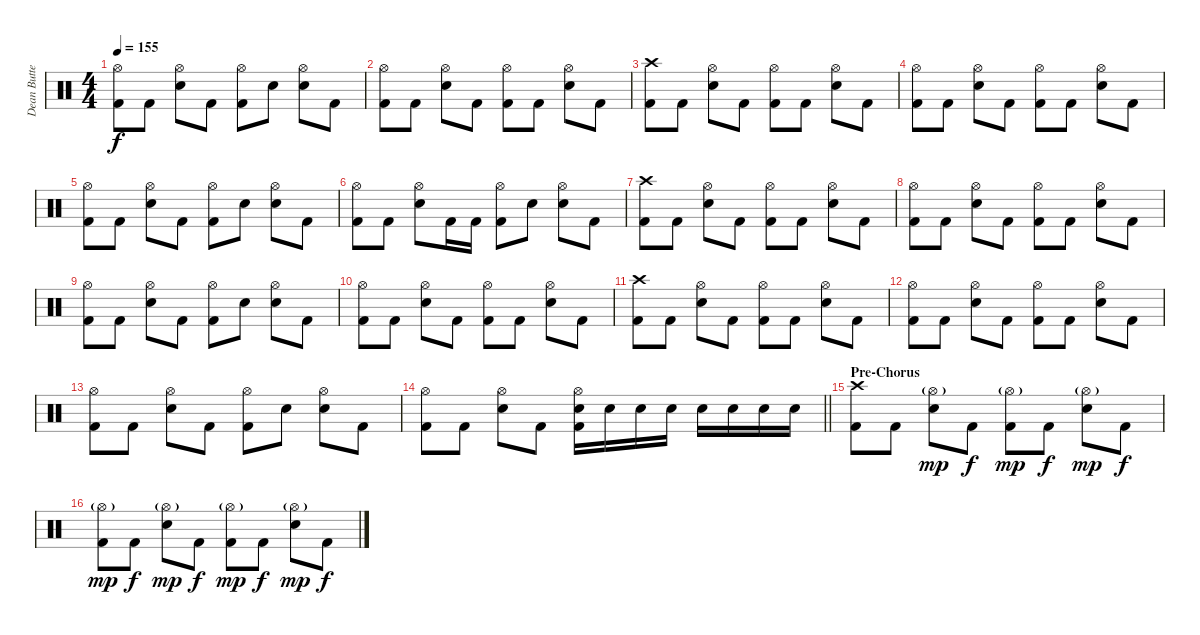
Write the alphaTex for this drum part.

\track ("Dean Butterworth [Drums]" "Dean Butte") {instrument percussion}
\staff {score}
\articulation defaults
\ts (4 4)
\tempo 155
\clef neutral
\ks c
("Hi-Hat (open)" "Kick (hit) 2").8{dy f} "Kick (hit) 2".8 ("Hi-Hat (open)" "Electric Snare (hit)").8 "Kick (hit) 2".8 ("Hi-Hat (open)" "Kick (hit) 2").8 "Electric Snare (hit)".8 ("Hi-Hat (open)" "Electric Snare (hit)").8 "Kick (hit) 2".8 |
("Hi-Hat (open)" "Kick (hit) 2").8 "Kick (hit) 2".8 ("Hi-Hat (open)" "Electric Snare (hit)").8 "Kick (hit) 2".8 ("Hi-Hat (open)" "Kick (hit) 2").8 "Kick (hit) 2".8 ("Hi-Hat (open)" "Electric Snare (hit)").8 "Kick (hit) 2".8 |
("Crash high (hit)" "Kick (hit) 2").8 "Kick (hit) 2".8 ("Hi-Hat (open)" "Electric Snare (hit)").8 "Kick (hit) 2".8 ("Hi-Hat (open)" "Kick (hit) 2").8 "Kick (hit) 2".8 ("Hi-Hat (open)" "Electric Snare (hit)").8 "Kick (hit) 2".8 |
("Hi-Hat (open)" "Kick (hit) 2").8 "Kick (hit) 2".8 ("Hi-Hat (open)" "Electric Snare (hit)").8 "Kick (hit) 2".8 ("Hi-Hat (open)" "Kick (hit) 2").8 "Kick (hit) 2".8 ("Hi-Hat (open)" "Electric Snare (hit)").8 "Kick (hit) 2".8 |
("Hi-Hat (open)" "Kick (hit) 2").8 "Kick (hit) 2".8 ("Hi-Hat (open)" "Electric Snare (hit)").8 "Kick (hit) 2".8 ("Hi-Hat (open)" "Kick (hit) 2").8 "Electric Snare (hit)".8 ("Hi-Hat (open)" "Electric Snare (hit)").8 "Kick (hit) 2".8 |
("Hi-Hat (open)" "Kick (hit) 2").8 "Kick (hit) 2".8 ("Hi-Hat (open)" "Electric Snare (hit)").8 "Kick (hit) 2".16 "Kick (hit) 2".16 ("Hi-Hat (open)" "Kick (hit) 2").8 "Electric Snare (hit)".8 ("Hi-Hat (open)" "Electric Snare (hit)").8 "Kick (hit) 2".8 |
("Crash high (hit)" "Kick (hit) 2").8 "Kick (hit) 2".8 ("Hi-Hat (open)" "Electric Snare (hit)").8 "Kick (hit) 2".8 ("Hi-Hat (open)" "Kick (hit) 2").8 "Kick (hit) 2".8 ("Hi-Hat (open)" "Electric Snare (hit)").8 "Kick (hit) 2".8 |
("Hi-Hat (open)" "Kick (hit) 2").8 "Kick (hit) 2".8 ("Hi-Hat (open)" "Electric Snare (hit)").8 "Kick (hit) 2".8 ("Hi-Hat (open)" "Kick (hit) 2").8 "Kick (hit) 2".8 ("Hi-Hat (open)" "Electric Snare (hit)").8 "Kick (hit) 2".8 |
("Hi-Hat (open)" "Kick (hit) 2").8 "Kick (hit) 2".8 ("Hi-Hat (open)" "Electric Snare (hit)").8 "Kick (hit) 2".8 ("Hi-Hat (open)" "Kick (hit) 2").8 "Electric Snare (hit)".8 ("Hi-Hat (open)" "Electric Snare (hit)").8 "Kick (hit) 2".8 |
("Hi-Hat (open)" "Kick (hit) 2").8 "Kick (hit) 2".8 ("Hi-Hat (open)" "Electric Snare (hit)").8 "Kick (hit) 2".8 ("Hi-Hat (open)" "Kick (hit) 2").8 "Kick (hit) 2".8 ("Hi-Hat (open)" "Electric Snare (hit)").8 "Kick (hit) 2".8 |
("Crash high (hit)" "Kick (hit) 2").8 "Kick (hit) 2".8 ("Hi-Hat (open)" "Electric Snare (hit)").8 "Kick (hit) 2".8 ("Hi-Hat (open)" "Kick (hit) 2").8 "Kick (hit) 2".8 ("Hi-Hat (open)" "Electric Snare (hit)").8 "Kick (hit) 2".8 |
("Hi-Hat (open)" "Kick (hit) 2").8 "Kick (hit) 2".8 ("Hi-Hat (open)" "Electric Snare (hit)").8 "Kick (hit) 2".8 ("Hi-Hat (open)" "Kick (hit) 2").8 "Kick (hit) 2".8 ("Hi-Hat (open)" "Electric Snare (hit)").8 "Kick (hit) 2".8 |
("Hi-Hat (open)" "Kick (hit) 2").8 "Kick (hit) 2".8 ("Hi-Hat (open)" "Electric Snare (hit)").8 "Kick (hit) 2".8 ("Hi-Hat (open)" "Kick (hit) 2").8 "Electric Snare (hit)".8 ("Hi-Hat (open)" "Electric Snare (hit)").8 "Kick (hit) 2".8 |
\barLineRight lightlight
("Hi-Hat (open)" "Kick (hit) 2").8 "Kick (hit) 2".8 ("Hi-Hat (open)" "Electric Snare (hit)").8 "Kick (hit) 2".8 ("Hi-Hat (open)" "Electric Snare (hit)" "Kick (hit) 2").16 "Electric Snare (hit)".16 "Electric Snare (hit)".16 "Electric Snare (hit)".16 "Electric Snare (hit)".16 "Electric Snare (hit)".16 "Electric Snare (hit)".16 "Electric Snare (hit)".16 |
\section ("" "Pre-Chorus")
("Crash high (hit)" "Kick (hit) 2").8 "Kick (hit) 2".8 ("Hi-Hat (open)"{g} "Electric Snare (hit)").8{dy mp} "Kick (hit) 2".8{dy f} ("Hi-Hat (open)"{g} "Kick (hit) 2").8{dy mp} "Kick (hit) 2".8{dy f} ("Hi-Hat (open)"{g} "Electric Snare (hit)").8{dy mp} "Kick (hit) 2".8{dy f} |
("Hi-Hat (open)"{g} "Kick (hit) 2").8{dy mp} "Kick (hit) 2".8{dy f} ("Hi-Hat (open)"{g} "Electric Snare (hit)").8{dy mp} "Kick (hit) 2".8{dy f} ("Hi-Hat (open)"{g} "Kick (hit) 2").8{dy mp} "Kick (hit) 2".8{dy f} ("Hi-Hat (open)"{g} "Electric Snare (hit)").8{dy mp} "Kick (hit) 2".8{dy f}
